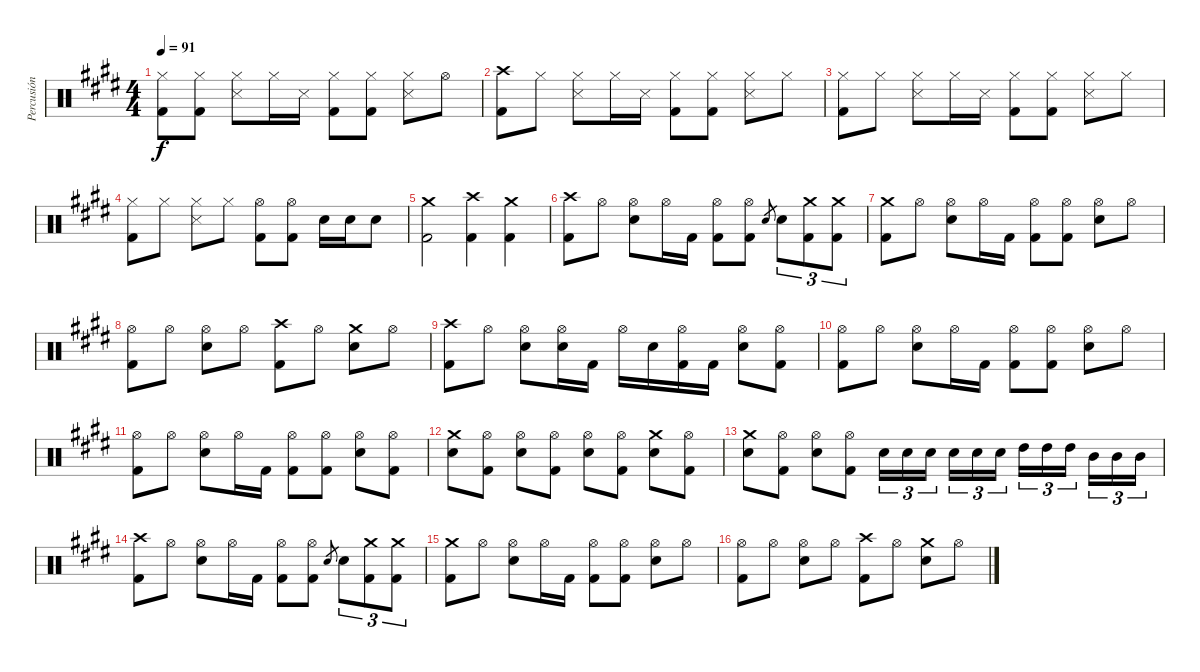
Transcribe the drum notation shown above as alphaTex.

\track ("Percusión" "Percusión") {instrument percussion}
\staff {score}
\articulation defaults
\ts (4 4)
\tempo 91
\clef neutral
\ks e
("Hi-Hat (closed)" "Kick (hit) 2").8{dy f} ("Hi-Hat (closed)" "Kick (hit) 2").8 ("Hi-Hat (closed)" "Metronome (hit)").8 "Hi-Hat (closed)".16 "Metronome (hit)".16 ("Hi-Hat (closed)" "Kick (hit) 2").8 ("Hi-Hat (closed)" "Kick (hit) 2").8 ("Hi-Hat (closed)" "Metronome (hit)").8 "Hi-Hat (open)".8 |
\ks c#minor
("Crash high (hit)" "Kick (hit) 2").8 "Hi-Hat (closed)".8 ("Hi-Hat (closed)" "Metronome (hit)").8 "Hi-Hat (closed)".16 "Metronome (hit)".16 ("Hi-Hat (closed)" "Kick (hit) 2").8 ("Hi-Hat (closed)" "Kick (hit) 2").8 ("Hi-Hat (closed)" "Metronome (hit)").8 "Hi-Hat (closed)".8 |
("Hi-Hat (closed)" "Kick (hit) 2").8 "Hi-Hat (closed)".8 ("Hi-Hat (closed)" "Metronome (hit)").8 "Hi-Hat (closed)".16 "Metronome (hit)".16 ("Hi-Hat (closed)" "Kick (hit) 2").8 ("Hi-Hat (closed)" "Kick (hit) 2").8 ("Hi-Hat (closed)" "Metronome (hit)").8 "Hi-Hat (closed)".8 |
("Hi-Hat (closed)" "Kick (hit) 2").8 "Hi-Hat (closed)".8 ("Hi-Hat (closed)" "Metronome (hit)").8 "Hi-Hat (closed)".8 ("Hi-Hat (open)" "Kick (hit) 2").8 ("Hi-Hat (open)" "Kick (hit) 2").8 "Electric Snare (hit)".16 "Electric Snare (hit)".16 "Electric Snare (hit)".8 |
("Crash medium (hit)" "Kick (hit) 2").2 ("Crash high (hit)" "Kick (hit) 2").4 ("Crash medium (hit)" "Kick (hit) 2").4 |
("Crash high (hit)" "Kick (hit) 2").8 "Hi-Hat (open)".8 ("Hi-Hat (open)" "Electric Snare (hit)").8 "Hi-Hat (open)".16 "Kick (hit) 2".16 ("Hi-Hat (open)" "Kick (hit) 2").8 ("Hi-Hat (open)" "Kick (hit) 2").8 "Electric Snare (hit)".8{gr} "Electric Snare (hit)".8{tu (3 2)} ("Crash medium (hit)" "Kick (hit) 2").8{tu (3 2)} ("Crash medium (hit)" "Kick (hit) 2").8{tu (3 2)} |
("Crash medium (hit)" "Kick (hit) 2").8 "Hi-Hat (open)".8 ("Hi-Hat (open)" "Electric Snare (hit)").8 "Hi-Hat (open)".16 "Kick (hit) 2".16 ("Hi-Hat (open)" "Kick (hit) 2").8 ("Hi-Hat (open)" "Kick (hit) 2").8 ("Hi-Hat (open)" "Electric Snare (hit)").8 "Hi-Hat (open)".8 |
\ks e
("Hi-Hat (open)" "Kick (hit) 2").8 "Hi-Hat (open)".8 ("Hi-Hat (open)" "Electric Snare (hit)").8 "Hi-Hat (open)".8 ("Crash high (hit)" "Kick (hit) 2").8 "Hi-Hat (open)".8 ("Crash medium (hit)" "Electric Snare (hit)").8 "Hi-Hat (open)".8 |
\ks c#minor
("Crash high (hit)" "Kick (hit) 2").8 "Hi-Hat (open)".8 ("Hi-Hat (open)" "Electric Snare (hit)").8 ("Hi-Hat (open)" "Electric Snare (hit)").16 "Kick (hit) 2".16 "Hi-Hat (open)".16 "Electric Snare (hit)".16 ("Hi-Hat (open)" "Kick (hit) 2").16 "Kick (hit) 2".16 ("Hi-Hat (open)" "Electric Snare (hit)").8 ("Hi-Hat (open)" "Kick (hit) 2").8 |
("Hi-Hat (open)" "Kick (hit) 2").8 "Hi-Hat (open)".8 ("Hi-Hat (open)" "Electric Snare (hit)").8 "Hi-Hat (open)".16 "Kick (hit) 2".16 ("Hi-Hat (open)" "Kick (hit) 2").8 ("Hi-Hat (open)" "Kick (hit) 2").8 ("Hi-Hat (open)" "Electric Snare (hit)").8 "Hi-Hat (open)".8 |
\ks e
("Hi-Hat (open)" "Kick (hit) 2").8 "Hi-Hat (open)".8 ("Hi-Hat (open)" "Electric Snare (hit)").8 "Hi-Hat (open)".16 "Kick (hit) 2".16 ("Hi-Hat (open)" "Kick (hit) 2").8 ("Hi-Hat (open)" "Kick (hit) 2").8 ("Hi-Hat (open)" "Electric Snare (hit)").8 ("Hi-Hat (open)" "Kick (hit) 2").8 |
\ks c#minor
("Crash medium (hit)" "Electric Snare (hit)").8 ("Hi-Hat (open)" "Kick (hit) 2").8 ("Hi-Hat (open)" "Electric Snare (hit)").8 ("Hi-Hat (open)" "Kick (hit) 2").8 ("Hi-Hat (open)" "Electric Snare (hit)").8 ("Hi-Hat (open)" "Kick (hit) 2").8 ("Crash medium (hit)" "Electric Snare (hit)").8 ("Hi-Hat (open)" "Kick (hit) 2").8 |
("Crash medium (hit)" "Electric Snare (hit)").8 ("Hi-Hat (open)" "Kick (hit) 2").8 ("Hi-Hat (open)" "Electric Snare (hit)").8 ("Hi-Hat (open)" "Kick (hit) 2").8 "Electric Snare (hit)".16{tu (3 2)} "Electric Snare (hit)".16{tu (3 2)} "Electric Snare (hit)".16{tu (3 2) beam splitsecondary} "Electric Snare (hit)".16{tu (3 2)} "Electric Snare (hit)".16{tu (3 2)} "Electric Snare (hit)".16{tu (3 2)} "High Tom (hit)".16{tu (3 2)} "High Tom (hit)".16{tu (3 2)} "High Tom (hit)".16{tu (3 2) beam splitsecondary} "Mid Tom (hit)".16{tu (3 2)} "Mid Tom (hit)".16{tu (3 2)} "Mid Tom (hit)".16{tu (3 2)} |
("Crash high (hit)" "Kick (hit) 2").8 "Hi-Hat (open)".8 ("Hi-Hat (open)" "Electric Snare (hit)").8 "Hi-Hat (open)".16 "Kick (hit) 2".16 ("Hi-Hat (open)" "Kick (hit) 2").8 ("Hi-Hat (open)" "Kick (hit) 2").8 "Electric Snare (hit)".8{gr} "Electric Snare (hit)".8{tu (3 2)} ("Crash medium (hit)" "Kick (hit) 2").8{tu (3 2)} ("Crash medium (hit)" "Kick (hit) 2").8{tu (3 2)} |
("Crash medium (hit)" "Kick (hit) 2").8 "Hi-Hat (open)".8 ("Hi-Hat (open)" "Electric Snare (hit)").8 "Hi-Hat (open)".16 "Kick (hit) 2".16 ("Hi-Hat (open)" "Kick (hit) 2").8 ("Hi-Hat (open)" "Kick (hit) 2").8 ("Hi-Hat (open)" "Electric Snare (hit)").8 "Hi-Hat (open)".8 |
\ks e
("Hi-Hat (open)" "Kick (hit) 2").8 "Hi-Hat (open)".8 ("Hi-Hat (open)" "Electric Snare (hit)").8 "Hi-Hat (open)".8 ("Crash high (hit)" "Kick (hit) 2").8 "Hi-Hat (open)".8 ("Crash medium (hit)" "Electric Snare (hit)").8 "Hi-Hat (open)".8
